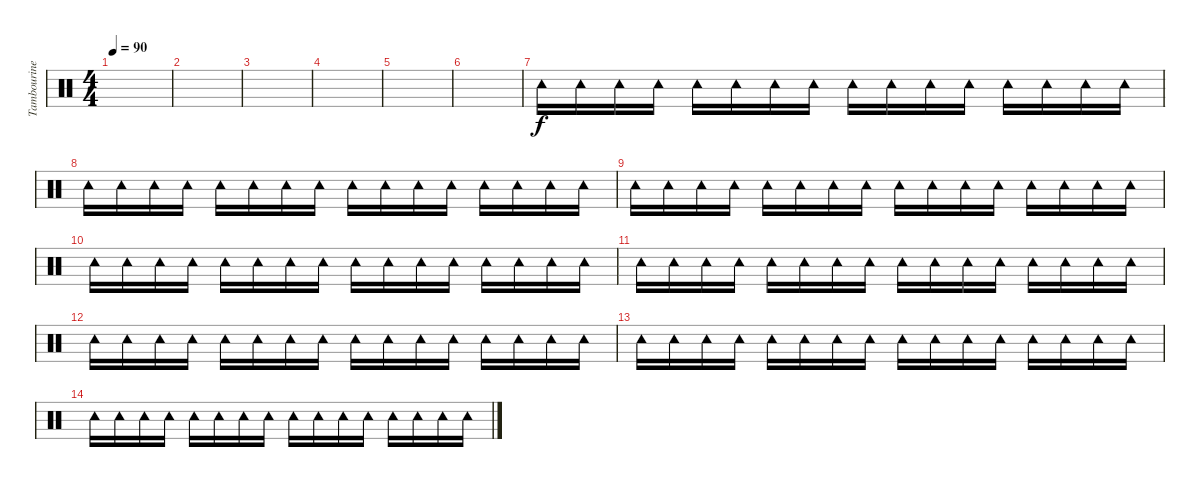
\track ("Tambourine" "Tambourine") {instrument percussion}
\staff {score}
\articulation defaults
\ts (4 4)
\tempo 90
\clef neutral
\ks c
|
|
|
|
|
|
"Tambourine (hit)".16 "Tambourine (hit)".16 "Tambourine (hit)".16 "Tambourine (hit)".16 "Tambourine (hit)".16 "Tambourine (hit)".16 "Tambourine (hit)".16 "Tambourine (hit)".16 "Tambourine (hit)".16 "Tambourine (hit)".16 "Tambourine (hit)".16 "Tambourine (hit)".16 "Tambourine (hit)".16 "Tambourine (hit)".16 "Tambourine (hit)".16 "Tambourine (hit)".16 |
"Tambourine (hit)".16 "Tambourine (hit)".16 "Tambourine (hit)".16 "Tambourine (hit)".16 "Tambourine (hit)".16 "Tambourine (hit)".16 "Tambourine (hit)".16 "Tambourine (hit)".16 "Tambourine (hit)".16 "Tambourine (hit)".16 "Tambourine (hit)".16 "Tambourine (hit)".16 "Tambourine (hit)".16 "Tambourine (hit)".16 "Tambourine (hit)".16 "Tambourine (hit)".16 |
"Tambourine (hit)".16 "Tambourine (hit)".16 "Tambourine (hit)".16 "Tambourine (hit)".16 "Tambourine (hit)".16 "Tambourine (hit)".16 "Tambourine (hit)".16 "Tambourine (hit)".16 "Tambourine (hit)".16 "Tambourine (hit)".16 "Tambourine (hit)".16 "Tambourine (hit)".16 "Tambourine (hit)".16 "Tambourine (hit)".16 "Tambourine (hit)".16 "Tambourine (hit)".16 |
"Tambourine (hit)".16 "Tambourine (hit)".16 "Tambourine (hit)".16 "Tambourine (hit)".16 "Tambourine (hit)".16 "Tambourine (hit)".16 "Tambourine (hit)".16 "Tambourine (hit)".16 "Tambourine (hit)".16 "Tambourine (hit)".16 "Tambourine (hit)".16 "Tambourine (hit)".16 "Tambourine (hit)".16 "Tambourine (hit)".16 "Tambourine (hit)".16 "Tambourine (hit)".16 |
"Tambourine (hit)".16 "Tambourine (hit)".16 "Tambourine (hit)".16 "Tambourine (hit)".16 "Tambourine (hit)".16 "Tambourine (hit)".16 "Tambourine (hit)".16 "Tambourine (hit)".16 "Tambourine (hit)".16 "Tambourine (hit)".16 "Tambourine (hit)".16 "Tambourine (hit)".16 "Tambourine (hit)".16 "Tambourine (hit)".16 "Tambourine (hit)".16 "Tambourine (hit)".16 |
"Tambourine (hit)".16 "Tambourine (hit)".16 "Tambourine (hit)".16 "Tambourine (hit)".16 "Tambourine (hit)".16 "Tambourine (hit)".16 "Tambourine (hit)".16 "Tambourine (hit)".16 "Tambourine (hit)".16 "Tambourine (hit)".16 "Tambourine (hit)".16 "Tambourine (hit)".16 "Tambourine (hit)".16 "Tambourine (hit)".16 "Tambourine (hit)".16 "Tambourine (hit)".16 |
"Tambourine (hit)".16 "Tambourine (hit)".16 "Tambourine (hit)".16 "Tambourine (hit)".16 "Tambourine (hit)".16 "Tambourine (hit)".16 "Tambourine (hit)".16 "Tambourine (hit)".16 "Tambourine (hit)".16 "Tambourine (hit)".16 "Tambourine (hit)".16 "Tambourine (hit)".16 "Tambourine (hit)".16 "Tambourine (hit)".16 "Tambourine (hit)".16 "Tambourine (hit)".16 |
"Tambourine (hit)".16 "Tambourine (hit)".16 "Tambourine (hit)".16 "Tambourine (hit)".16 "Tambourine (hit)".16 "Tambourine (hit)".16 "Tambourine (hit)".16 "Tambourine (hit)".16 "Tambourine (hit)".16 "Tambourine (hit)".16 "Tambourine (hit)".16 "Tambourine (hit)".16 "Tambourine (hit)".16 "Tambourine (hit)".16 "Tambourine (hit)".16 "Tambourine (hit)".16
